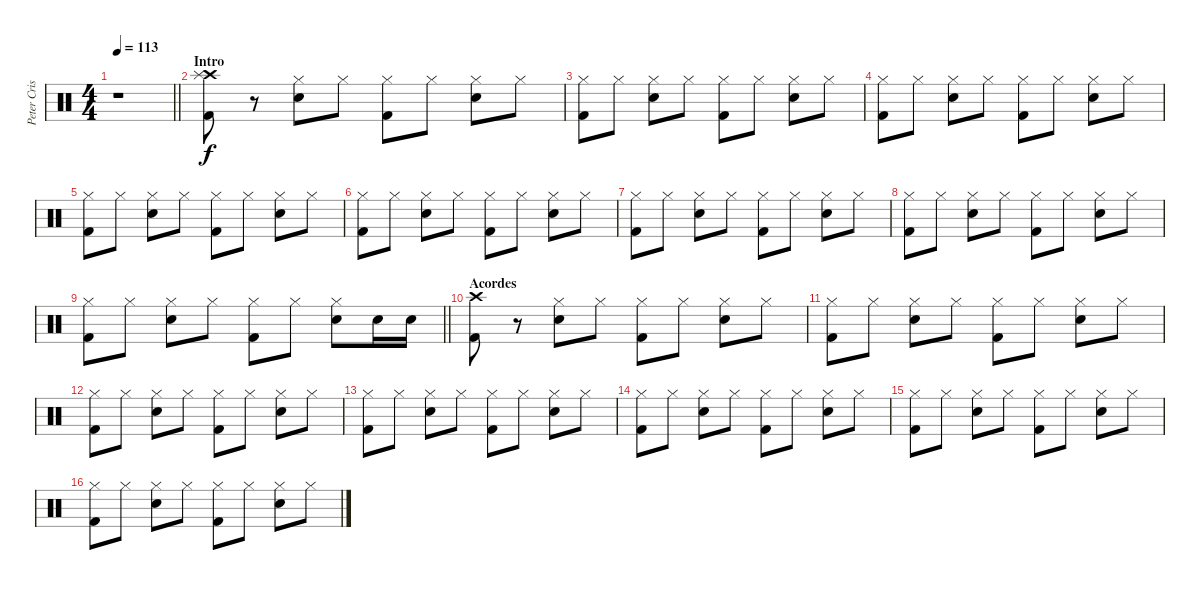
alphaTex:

\track ("Peter Criss" "Peter Cris") {instrument percussion}
\staff {score}
\articulation defaults
\ts (4 4)
\tempo 113
\clef neutral
\barLineRight lightlight
\ks c
r.1{dy f} |
\section ("" "Intro")
("Crash high (hit)" "Splash (hit)" "Kick (hit) 2").8 r.8 ("Hi-Hat (closed)" "Electric Snare (hit)").8 "Hi-Hat (closed)".8 ("Hi-Hat (closed)" "Kick (hit) 2").8 "Hi-Hat (closed)".8 ("Hi-Hat (closed)" "Electric Snare (hit)").8 "Hi-Hat (closed)".8 |
("Hi-Hat (closed)" "Kick (hit) 2").8 "Hi-Hat (closed)".8 ("Hi-Hat (closed)" "Electric Snare (hit)").8 "Hi-Hat (closed)".8 ("Hi-Hat (closed)" "Kick (hit) 2").8 "Hi-Hat (closed)".8 ("Hi-Hat (closed)" "Electric Snare (hit)").8 "Hi-Hat (closed)".8 |
("Hi-Hat (closed)" "Kick (hit) 2").8 "Hi-Hat (closed)".8 ("Hi-Hat (closed)" "Electric Snare (hit)").8 "Hi-Hat (closed)".8 ("Hi-Hat (closed)" "Kick (hit) 2").8 "Hi-Hat (closed)".8 ("Hi-Hat (closed)" "Electric Snare (hit)").8 "Hi-Hat (closed)".8 |
("Hi-Hat (closed)" "Kick (hit) 2").8 "Hi-Hat (closed)".8 ("Hi-Hat (closed)" "Electric Snare (hit)").8 "Hi-Hat (closed)".8 ("Hi-Hat (closed)" "Kick (hit) 2").8 "Hi-Hat (closed)".8 ("Hi-Hat (closed)" "Electric Snare (hit)").8 "Hi-Hat (closed)".8 |
("Hi-Hat (closed)" "Kick (hit) 2").8 "Hi-Hat (closed)".8 ("Hi-Hat (closed)" "Electric Snare (hit)").8 "Hi-Hat (closed)".8 ("Hi-Hat (closed)" "Kick (hit) 2").8 "Hi-Hat (closed)".8 ("Hi-Hat (closed)" "Electric Snare (hit)").8 "Hi-Hat (closed)".8 |
("Hi-Hat (closed)" "Kick (hit) 2").8 "Hi-Hat (closed)".8 ("Hi-Hat (closed)" "Electric Snare (hit)").8 "Hi-Hat (closed)".8 ("Hi-Hat (closed)" "Kick (hit) 2").8 "Hi-Hat (closed)".8 ("Hi-Hat (closed)" "Electric Snare (hit)").8 "Hi-Hat (closed)".8 |
("Hi-Hat (closed)" "Kick (hit) 2").8 "Hi-Hat (closed)".8 ("Hi-Hat (closed)" "Electric Snare (hit)").8 "Hi-Hat (closed)".8 ("Hi-Hat (closed)" "Kick (hit) 2").8 "Hi-Hat (closed)".8 ("Hi-Hat (closed)" "Electric Snare (hit)").8 "Hi-Hat (closed)".8 |
\barLineRight lightlight
("Hi-Hat (closed)" "Kick (hit) 2").8 "Hi-Hat (closed)".8 ("Hi-Hat (closed)" "Electric Snare (hit)").8 "Hi-Hat (closed)".8 ("Hi-Hat (closed)" "Kick (hit) 2").8 "Hi-Hat (closed)".8 ("Hi-Hat (closed)" "Electric Snare (hit)").8 "Electric Snare (hit)".16 "Electric Snare (hit)".16 |
\section ("" "Acordes")
("Crash high (hit)" "Kick (hit) 2").8 r.8 ("Hi-Hat (closed)" "Electric Snare (hit)").8 "Hi-Hat (closed)".8 ("Hi-Hat (closed)" "Kick (hit) 2").8 "Hi-Hat (closed)".8 ("Hi-Hat (closed)" "Electric Snare (hit)").8 "Hi-Hat (closed)".8 |
("Hi-Hat (closed)" "Kick (hit) 2").8 "Hi-Hat (closed)".8 ("Hi-Hat (closed)" "Electric Snare (hit)").8 "Hi-Hat (closed)".8 ("Hi-Hat (closed)" "Kick (hit) 2").8 "Hi-Hat (closed)".8 ("Hi-Hat (closed)" "Electric Snare (hit)").8 "Hi-Hat (closed)".8 |
("Hi-Hat (closed)" "Kick (hit) 2").8 "Hi-Hat (closed)".8 ("Hi-Hat (closed)" "Electric Snare (hit)").8 "Hi-Hat (closed)".8 ("Hi-Hat (closed)" "Kick (hit) 2").8 "Hi-Hat (closed)".8 ("Hi-Hat (closed)" "Electric Snare (hit)").8 "Hi-Hat (closed)".8 |
("Hi-Hat (closed)" "Kick (hit) 2").8 "Hi-Hat (closed)".8 ("Hi-Hat (closed)" "Electric Snare (hit)").8 "Hi-Hat (closed)".8 ("Hi-Hat (closed)" "Kick (hit) 2").8 "Hi-Hat (closed)".8 ("Hi-Hat (closed)" "Electric Snare (hit)").8 "Hi-Hat (closed)".8 |
("Hi-Hat (closed)" "Kick (hit) 2").8 "Hi-Hat (closed)".8 ("Hi-Hat (closed)" "Electric Snare (hit)").8 "Hi-Hat (closed)".8 ("Hi-Hat (closed)" "Kick (hit) 2").8 "Hi-Hat (closed)".8 ("Hi-Hat (closed)" "Electric Snare (hit)").8 "Hi-Hat (closed)".8 |
("Hi-Hat (closed)" "Kick (hit) 2").8 "Hi-Hat (closed)".8 ("Hi-Hat (closed)" "Electric Snare (hit)").8 "Hi-Hat (closed)".8 ("Hi-Hat (closed)" "Kick (hit) 2").8 "Hi-Hat (closed)".8 ("Hi-Hat (closed)" "Electric Snare (hit)").8 "Hi-Hat (closed)".8 |
("Hi-Hat (closed)" "Kick (hit) 2").8 "Hi-Hat (closed)".8 ("Hi-Hat (closed)" "Electric Snare (hit)").8 "Hi-Hat (closed)".8 ("Hi-Hat (closed)" "Kick (hit) 2").8 "Hi-Hat (closed)".8 ("Hi-Hat (closed)" "Electric Snare (hit)").8 "Hi-Hat (closed)".8
